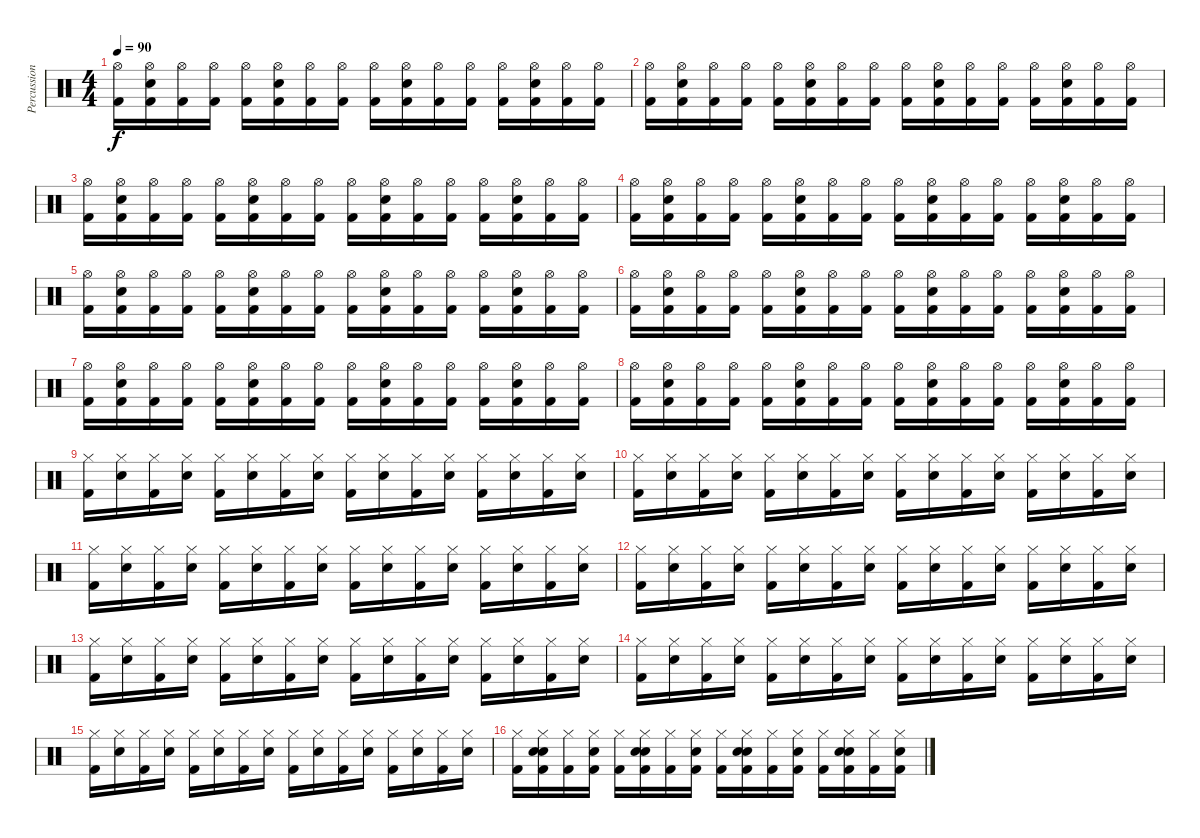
\track ("Percussion" "Percussion") {instrument percussion}
\staff {score}
\articulation defaults
\ts (4 4)
\tempo 90
\clef neutral
\ks c
("Hi-Hat (open)" "Kick (hit) 2").16{dy f} ("Hi-Hat (open)" "Snare (hit) 2" "Kick (hit) 2").16 ("Hi-Hat (open)" "Kick (hit) 2").16 ("Hi-Hat (open)" "Kick (hit) 2").16 ("Hi-Hat (open)" "Kick (hit) 2").16 ("Hi-Hat (open)" "Snare (hit) 2" "Kick (hit) 2").16 ("Hi-Hat (open)" "Kick (hit) 2").16 ("Hi-Hat (open)" "Kick (hit) 2").16 ("Hi-Hat (open)" "Kick (hit) 2").16 ("Hi-Hat (open)" "Snare (hit) 2" "Kick (hit) 2").16 ("Hi-Hat (open)" "Kick (hit) 2").16 ("Hi-Hat (open)" "Kick (hit) 2").16 ("Hi-Hat (open)" "Kick (hit) 2").16 ("Hi-Hat (open)" "Snare (hit) 2" "Kick (hit) 2").16 ("Hi-Hat (open)" "Kick (hit) 2").16 ("Hi-Hat (open)" "Kick (hit) 2").16 |
("Hi-Hat (open)" "Kick (hit) 2").16 ("Hi-Hat (open)" "Snare (hit) 2" "Kick (hit) 2").16 ("Hi-Hat (open)" "Kick (hit) 2").16 ("Hi-Hat (open)" "Kick (hit) 2").16 ("Hi-Hat (open)" "Kick (hit) 2").16 ("Hi-Hat (open)" "Snare (hit) 2" "Kick (hit) 2").16 ("Hi-Hat (open)" "Kick (hit) 2").16 ("Hi-Hat (open)" "Kick (hit) 2").16 ("Hi-Hat (open)" "Kick (hit) 2").16 ("Hi-Hat (open)" "Snare (hit) 2" "Kick (hit) 2").16 ("Hi-Hat (open)" "Kick (hit) 2").16 ("Hi-Hat (open)" "Kick (hit) 2").16 ("Hi-Hat (open)" "Kick (hit) 2").16 ("Hi-Hat (open)" "Snare (hit) 2" "Kick (hit) 2").16 ("Hi-Hat (open)" "Kick (hit) 2").16 ("Hi-Hat (open)" "Kick (hit) 2").16 |
("Hi-Hat (open)" "Kick (hit) 2").16 ("Hi-Hat (open)" "Snare (hit) 2" "Kick (hit) 2").16 ("Hi-Hat (open)" "Kick (hit) 2").16 ("Hi-Hat (open)" "Kick (hit) 2").16 ("Hi-Hat (open)" "Kick (hit) 2").16 ("Hi-Hat (open)" "Snare (hit) 2" "Kick (hit) 2").16 ("Hi-Hat (open)" "Kick (hit) 2").16 ("Hi-Hat (open)" "Kick (hit) 2").16 ("Hi-Hat (open)" "Kick (hit) 2").16 ("Hi-Hat (open)" "Snare (hit) 2" "Kick (hit) 2").16 ("Hi-Hat (open)" "Kick (hit) 2").16 ("Hi-Hat (open)" "Kick (hit) 2").16 ("Hi-Hat (open)" "Kick (hit) 2").16 ("Hi-Hat (open)" "Snare (hit) 2" "Kick (hit) 2").16 ("Hi-Hat (open)" "Kick (hit) 2").16 ("Hi-Hat (open)" "Kick (hit) 2").16 |
("Hi-Hat (open)" "Kick (hit) 2").16 ("Hi-Hat (open)" "Snare (hit) 2" "Kick (hit) 2").16 ("Hi-Hat (open)" "Kick (hit) 2").16 ("Hi-Hat (open)" "Kick (hit) 2").16 ("Hi-Hat (open)" "Kick (hit) 2").16 ("Hi-Hat (open)" "Snare (hit) 2" "Kick (hit) 2").16 ("Hi-Hat (open)" "Kick (hit) 2").16 ("Hi-Hat (open)" "Kick (hit) 2").16 ("Hi-Hat (open)" "Kick (hit) 2").16 ("Hi-Hat (open)" "Snare (hit) 2" "Kick (hit) 2").16 ("Hi-Hat (open)" "Kick (hit) 2").16 ("Hi-Hat (open)" "Kick (hit) 2").16 ("Hi-Hat (open)" "Kick (hit) 2").16 ("Hi-Hat (open)" "Snare (hit) 2" "Kick (hit) 2").16 ("Hi-Hat (open)" "Kick (hit) 2").16 ("Hi-Hat (open)" "Kick (hit) 2").16 |
("Hi-Hat (open)" "Kick (hit) 2").16 ("Hi-Hat (open)" "Snare (hit) 2" "Kick (hit) 2").16 ("Hi-Hat (open)" "Kick (hit) 2").16 ("Hi-Hat (open)" "Kick (hit) 2").16 ("Hi-Hat (open)" "Kick (hit) 2").16 ("Hi-Hat (open)" "Snare (hit) 2" "Kick (hit) 2").16 ("Hi-Hat (open)" "Kick (hit) 2").16 ("Hi-Hat (open)" "Kick (hit) 2").16 ("Hi-Hat (open)" "Kick (hit) 2").16 ("Hi-Hat (open)" "Snare (hit) 2" "Kick (hit) 2").16 ("Hi-Hat (open)" "Kick (hit) 2").16 ("Hi-Hat (open)" "Kick (hit) 2").16 ("Hi-Hat (open)" "Kick (hit) 2").16 ("Hi-Hat (open)" "Snare (hit) 2" "Kick (hit) 2").16 ("Hi-Hat (open)" "Kick (hit) 2").16 ("Hi-Hat (open)" "Kick (hit) 2").16 |
("Hi-Hat (open)" "Kick (hit) 2").16 ("Hi-Hat (open)" "Snare (hit) 2" "Kick (hit) 2").16 ("Hi-Hat (open)" "Kick (hit) 2").16 ("Hi-Hat (open)" "Kick (hit) 2").16 ("Hi-Hat (open)" "Kick (hit) 2").16 ("Hi-Hat (open)" "Snare (hit) 2" "Kick (hit) 2").16 ("Hi-Hat (open)" "Kick (hit) 2").16 ("Hi-Hat (open)" "Kick (hit) 2").16 ("Hi-Hat (open)" "Kick (hit) 2").16 ("Hi-Hat (open)" "Snare (hit) 2" "Kick (hit) 2").16 ("Hi-Hat (open)" "Kick (hit) 2").16 ("Hi-Hat (open)" "Kick (hit) 2").16 ("Hi-Hat (open)" "Kick (hit) 2").16 ("Hi-Hat (open)" "Snare (hit) 2" "Kick (hit) 2").16 ("Hi-Hat (open)" "Kick (hit) 2").16 ("Hi-Hat (open)" "Kick (hit) 2").16 |
("Hi-Hat (open)" "Kick (hit) 2").16 ("Hi-Hat (open)" "Snare (hit) 2" "Kick (hit) 2").16 ("Hi-Hat (open)" "Kick (hit) 2").16 ("Hi-Hat (open)" "Kick (hit) 2").16 ("Hi-Hat (open)" "Kick (hit) 2").16 ("Hi-Hat (open)" "Snare (hit) 2" "Kick (hit) 2").16 ("Hi-Hat (open)" "Kick (hit) 2").16 ("Hi-Hat (open)" "Kick (hit) 2").16 ("Hi-Hat (open)" "Kick (hit) 2").16 ("Hi-Hat (open)" "Snare (hit) 2" "Kick (hit) 2").16 ("Hi-Hat (open)" "Kick (hit) 2").16 ("Hi-Hat (open)" "Kick (hit) 2").16 ("Hi-Hat (open)" "Kick (hit) 2").16 ("Hi-Hat (open)" "Snare (hit) 2" "Kick (hit) 2").16 ("Hi-Hat (open)" "Kick (hit) 2").16 ("Hi-Hat (open)" "Kick (hit) 2").16 |
("Hi-Hat (open)" "Kick (hit) 2").16 ("Hi-Hat (open)" "Snare (hit) 2" "Kick (hit) 2").16 ("Hi-Hat (open)" "Kick (hit) 2").16 ("Hi-Hat (open)" "Kick (hit) 2").16 ("Hi-Hat (open)" "Kick (hit) 2").16 ("Hi-Hat (open)" "Snare (hit) 2" "Kick (hit) 2").16 ("Hi-Hat (open)" "Kick (hit) 2").16 ("Hi-Hat (open)" "Kick (hit) 2").16 ("Hi-Hat (open)" "Kick (hit) 2").16 ("Hi-Hat (open)" "Snare (hit) 2" "Kick (hit) 2").16 ("Hi-Hat (open)" "Kick (hit) 2").16 ("Hi-Hat (open)" "Kick (hit) 2").16 ("Hi-Hat (open)" "Kick (hit) 2").16 ("Hi-Hat (open)" "Snare (hit) 2" "Kick (hit) 2").16 ("Hi-Hat (open)" "Kick (hit) 2").16 ("Hi-Hat (open)" "Kick (hit) 2").16 |
("Hi-Hat (closed)" "Kick (hit) 2").16 ("Hi-Hat (closed)" "Snare (hit) 2").16 ("Hi-Hat (closed)" "Kick (hit) 2").16 ("Hi-Hat (closed)" "Snare (hit) 2").16 ("Hi-Hat (closed)" "Kick (hit) 2").16 ("Hi-Hat (closed)" "Snare (hit) 2").16 ("Hi-Hat (closed)" "Kick (hit) 2").16 ("Hi-Hat (closed)" "Snare (hit) 2").16 ("Hi-Hat (closed)" "Kick (hit) 2").16 ("Hi-Hat (closed)" "Snare (hit) 2").16 ("Hi-Hat (closed)" "Kick (hit) 2").16 ("Hi-Hat (closed)" "Snare (hit) 2").16 ("Hi-Hat (closed)" "Kick (hit) 2").16 ("Hi-Hat (closed)" "Snare (hit) 2").16 ("Hi-Hat (closed)" "Kick (hit) 2").16 ("Hi-Hat (closed)" "Snare (hit) 2").16 |
("Hi-Hat (closed)" "Kick (hit) 2").16 ("Hi-Hat (closed)" "Snare (hit) 2").16 ("Hi-Hat (closed)" "Kick (hit) 2").16 ("Hi-Hat (closed)" "Snare (hit) 2").16 ("Hi-Hat (closed)" "Kick (hit) 2").16 ("Hi-Hat (closed)" "Snare (hit) 2").16 ("Hi-Hat (closed)" "Kick (hit) 2").16 ("Hi-Hat (closed)" "Snare (hit) 2").16 ("Hi-Hat (closed)" "Kick (hit) 2").16 ("Hi-Hat (closed)" "Snare (hit) 2").16 ("Hi-Hat (closed)" "Kick (hit) 2").16 ("Hi-Hat (closed)" "Snare (hit) 2").16 ("Hi-Hat (closed)" "Kick (hit) 2").16 ("Hi-Hat (closed)" "Snare (hit) 2").16 ("Hi-Hat (closed)" "Kick (hit) 2").16 ("Hi-Hat (closed)" "Snare (hit) 2").16 |
("Hi-Hat (closed)" "Kick (hit) 2").16 ("Hi-Hat (closed)" "Snare (hit) 2").16 ("Hi-Hat (closed)" "Kick (hit) 2").16 ("Hi-Hat (closed)" "Snare (hit) 2").16 ("Hi-Hat (closed)" "Kick (hit) 2").16 ("Hi-Hat (closed)" "Snare (hit) 2").16 ("Hi-Hat (closed)" "Kick (hit) 2").16 ("Hi-Hat (closed)" "Snare (hit) 2").16 ("Hi-Hat (closed)" "Kick (hit) 2").16 ("Hi-Hat (closed)" "Snare (hit) 2").16 ("Hi-Hat (closed)" "Kick (hit) 2").16 ("Hi-Hat (closed)" "Snare (hit) 2").16 ("Hi-Hat (closed)" "Kick (hit) 2").16 ("Hi-Hat (closed)" "Snare (hit) 2").16 ("Hi-Hat (closed)" "Kick (hit) 2").16 ("Hi-Hat (closed)" "Snare (hit) 2").16 |
("Hi-Hat (closed)" "Kick (hit) 2").16 ("Hi-Hat (closed)" "Snare (hit) 2").16 ("Hi-Hat (closed)" "Kick (hit) 2").16 ("Hi-Hat (closed)" "Snare (hit) 2").16 ("Hi-Hat (closed)" "Kick (hit) 2").16 ("Hi-Hat (closed)" "Snare (hit) 2").16 ("Hi-Hat (closed)" "Kick (hit) 2").16 ("Hi-Hat (closed)" "Snare (hit) 2").16 ("Hi-Hat (closed)" "Kick (hit) 2").16 ("Hi-Hat (closed)" "Snare (hit) 2").16 ("Hi-Hat (closed)" "Kick (hit) 2").16 ("Hi-Hat (closed)" "Snare (hit) 2").16 ("Hi-Hat (closed)" "Kick (hit) 2").16 ("Hi-Hat (closed)" "Snare (hit) 2").16 ("Hi-Hat (closed)" "Kick (hit) 2").16 ("Hi-Hat (closed)" "Snare (hit) 2").16 |
("Hi-Hat (closed)" "Kick (hit) 2").16 ("Hi-Hat (closed)" "Snare (hit) 2").16 ("Hi-Hat (closed)" "Kick (hit) 2").16 ("Hi-Hat (closed)" "Snare (hit) 2").16 ("Hi-Hat (closed)" "Kick (hit) 2").16 ("Hi-Hat (closed)" "Snare (hit) 2").16 ("Hi-Hat (closed)" "Kick (hit) 2").16 ("Hi-Hat (closed)" "Snare (hit) 2").16 ("Hi-Hat (closed)" "Kick (hit) 2").16 ("Hi-Hat (closed)" "Snare (hit) 2").16 ("Hi-Hat (closed)" "Kick (hit) 2").16 ("Hi-Hat (closed)" "Snare (hit) 2").16 ("Hi-Hat (closed)" "Kick (hit) 2").16 ("Hi-Hat (closed)" "Snare (hit) 2").16 ("Hi-Hat (closed)" "Kick (hit) 2").16 ("Hi-Hat (closed)" "Snare (hit) 2").16 |
("Hi-Hat (closed)" "Kick (hit) 2").16 ("Hi-Hat (closed)" "Snare (hit) 2").16 ("Hi-Hat (closed)" "Kick (hit) 2").16 ("Hi-Hat (closed)" "Snare (hit) 2").16 ("Hi-Hat (closed)" "Kick (hit) 2").16 ("Hi-Hat (closed)" "Snare (hit) 2").16 ("Hi-Hat (closed)" "Kick (hit) 2").16 ("Hi-Hat (closed)" "Snare (hit) 2").16 ("Hi-Hat (closed)" "Kick (hit) 2").16 ("Hi-Hat (closed)" "Snare (hit) 2").16 ("Hi-Hat (closed)" "Kick (hit) 2").16 ("Hi-Hat (closed)" "Snare (hit) 2").16 ("Hi-Hat (closed)" "Kick (hit) 2").16 ("Hi-Hat (closed)" "Snare (hit) 2").16 ("Hi-Hat (closed)" "Kick (hit) 2").16 ("Hi-Hat (closed)" "Snare (hit) 2").16 |
("Hi-Hat (closed)" "Kick (hit) 2").16 ("Hi-Hat (closed)" "Snare (hit) 2").16 ("Hi-Hat (closed)" "Kick (hit) 2").16 ("Hi-Hat (closed)" "Snare (hit) 2").16 ("Hi-Hat (closed)" "Kick (hit) 2").16 ("Hi-Hat (closed)" "Snare (hit) 2").16 ("Hi-Hat (closed)" "Kick (hit) 2").16 ("Hi-Hat (closed)" "Snare (hit) 2").16 ("Hi-Hat (closed)" "Kick (hit) 2").16 ("Hi-Hat (closed)" "Snare (hit) 2").16 ("Hi-Hat (closed)" "Kick (hit) 2").16 ("Hi-Hat (closed)" "Snare (hit) 2").16 ("Hi-Hat (closed)" "Kick (hit) 2").16 ("Hi-Hat (closed)" "Snare (hit) 2").16 ("Hi-Hat (closed)" "Kick (hit) 2").16 ("Hi-Hat (closed)" "Snare (hit) 2").16 |
("Hi-Hat (closed)" "Kick (hit) 2").16 ("Hi-Hat (closed)" "Snare (hit) 2" "Snare (hit) 2" "Kick (hit) 2").16 ("Hi-Hat (closed)" "Kick (hit) 2").16 ("Hi-Hat (closed)" "Snare (hit) 2" "Kick (hit) 2").16 ("Hi-Hat (closed)" "Kick (hit) 2").16 ("Hi-Hat (closed)" "Snare (hit) 2" "Snare (hit) 2" "Kick (hit) 2").16 ("Hi-Hat (closed)" "Kick (hit) 2").16 ("Hi-Hat (closed)" "Snare (hit) 2" "Kick (hit) 2").16 ("Hi-Hat (closed)" "Kick (hit) 2").16 ("Hi-Hat (closed)" "Snare (hit) 2" "Snare (hit) 2" "Kick (hit) 2").16 ("Hi-Hat (closed)" "Kick (hit) 2").16 ("Hi-Hat (closed)" "Snare (hit) 2" "Kick (hit) 2").16 ("Hi-Hat (closed)" "Kick (hit) 2").16 ("Hi-Hat (closed)" "Snare (hit) 2" "Snare (hit) 2" "Kick (hit) 2").16 ("Hi-Hat (closed)" "Kick (hit) 2").16 ("Hi-Hat (closed)" "Snare (hit) 2" "Kick (hit) 2").16
